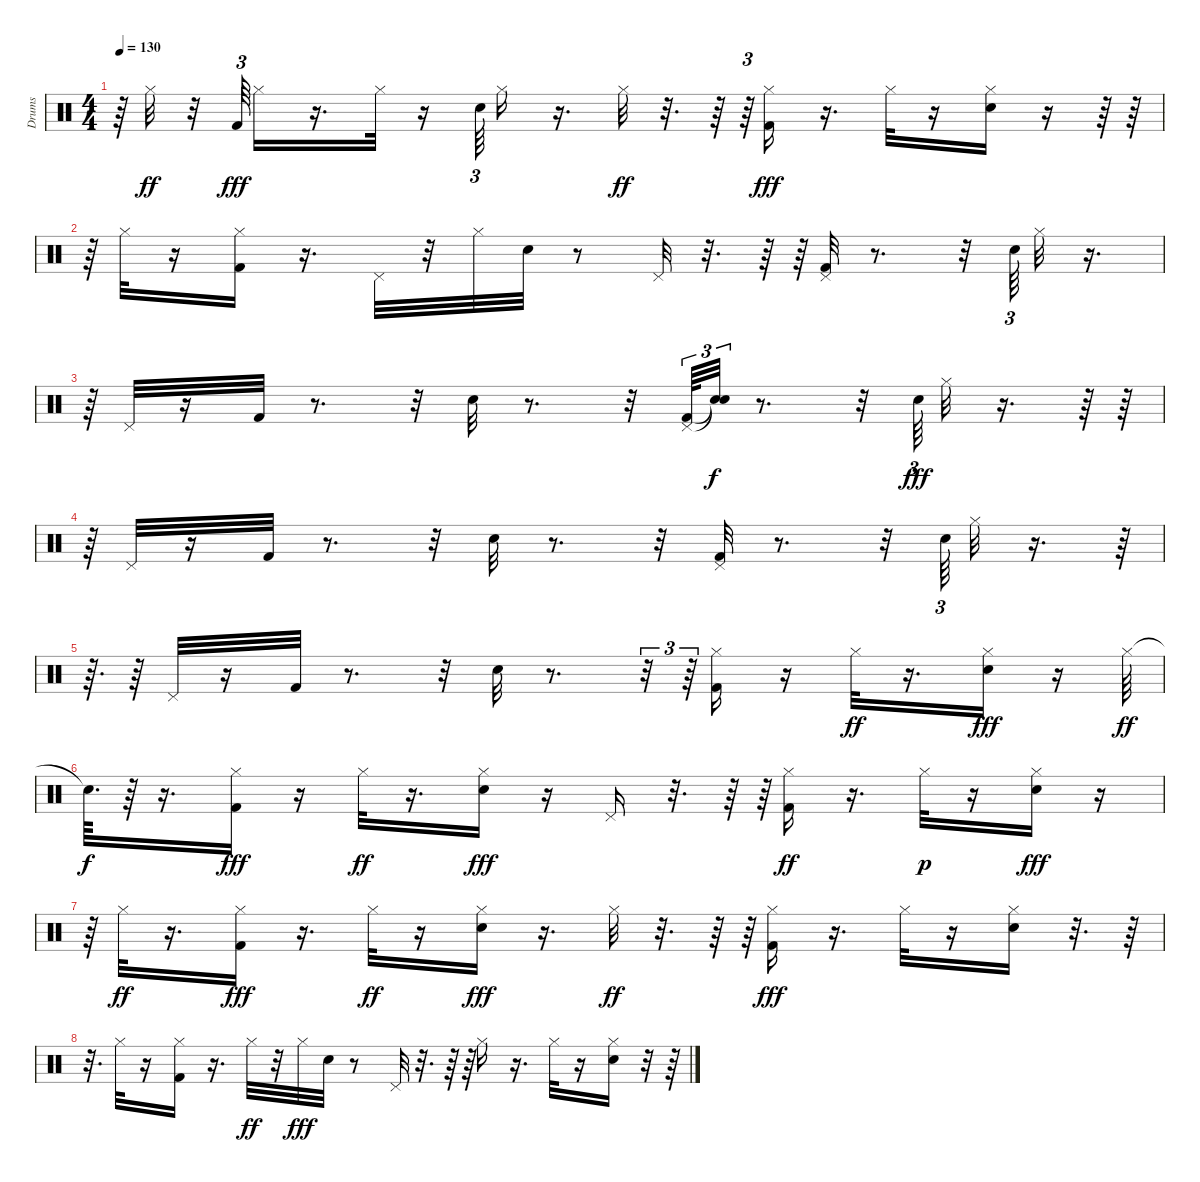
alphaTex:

\track ("Drums" "Drums") {instrument percussion}
\staff {score}
\articulation defaults
\ts (4 4)
\tempo 130
\clef neutral
\ks c
r.64{dy fff} "Hi-Hat (closed)".32{dy ff} r.32 "Kick (hit) 2".64{tu (3 2) dy fff} "Hi-Hat (closed)".16 r.16{d} "Hi-Hat (closed)".32 r.16 "Electric Snare (hit)".64{tu (3 2)} "Hi-Hat (closed)".16 r.16{d} "Hi-Hat (closed)".32{dy ff} r.32{d} r.64 r.64{tu (3 2)} ("Kick (hit) 2" "Hi-Hat (closed)").16{dy fff} r.16{d} "Hi-Hat (closed)".32 r.16 ("Electric Snare (hit)" "Hi-Hat (closed)").16 r.16 r.64 r.64 |
r.64 "Hi-Hat (closed)".32 r.16 ("Kick (hit) 2" "Hi-Hat (closed)").16 r.16{d} "Pedal Hi-Hat (hit)".32 r.32 "Hi-Hat (closed)".32 "Electric Snare (hit)".32 r.8 "Pedal Hi-Hat (hit)".32 r.32{d} r.64 r.64{tu (3 2)} ("Kick (hit) 2" "Pedal Hi-Hat (hit)").32 r.8{d} r.32 "Electric Snare (hit)".64{tu (3 2)} "Hi-Hat (closed)".32 r.16{d} |
r.64 "Pedal Hi-Hat (hit)".32 r.16 "Kick (hit) 2".32 r.8{d} r.32 "Electric Snare (hit)".32 r.8{d} r.32 ("Kick (hit) 2" "Pedal Hi-Hat (hit)").64{tu (3 2)} ("Snare (hit)"{t} "Snare (hit)"{t}).32{tu (3 2) dy f} r.8{d} r.32 "Electric Snare (hit)".64{tu (3 2) dy fff} "Hi-Hat (closed)".32 r.16{d} r.64 r.64 |
r.64 "Pedal Hi-Hat (hit)".32 r.16 "Kick (hit) 2".32 r.8{d} r.32 "Electric Snare (hit)".32 r.8{d} r.32 ("Kick (hit) 2" "Pedal Hi-Hat (hit)").32 r.8{d} r.32 "Electric Snare (hit)".64{tu (3 2)} "Hi-Hat (closed)".32 r.16{d} r.64 |
r.64{d} r.64 "Pedal Hi-Hat (hit)".32 r.16 "Kick (hit) 2".32 r.8{d} r.32 "Electric Snare (hit)".32 r.8{d} r.32{tu (3 2)} r.64{tu (3 2)} ("Kick (hit) 2" "Hi-Hat (closed)").16 r.16 "Hi-Hat (closed)".32{dy ff} r.16{d} ("Hi-Hat (closed)" "Electric Snare (hit)").16{dy fff} r.16 "Hi-Hat (closed)".64{dy ff} |
"Snare (hit)"{t}.64{d dy f} r.64 r.16{d} ("Hi-Hat (closed)" "Kick (hit) 2").16{dy fff} r.16 "Hi-Hat (closed)".32{dy ff} r.16{d} ("Hi-Hat (closed)" "Electric Snare (hit)").16{dy fff} r.16 "Pedal Hi-Hat (hit)".16 r.32{d} r.64 r.64{tu (3 2)} ("Kick (hit) 2" "Hi-Hat (closed)").16{dy ff} r.16{d} "Hi-Hat (closed)".32{dy p} r.16 ("Electric Snare (hit)" "Hi-Hat (closed)").16{dy fff} r.16 |
r.64 "Hi-Hat (closed)".32{dy ff} r.16{d} ("Kick (hit) 2" "Hi-Hat (closed)").16{dy fff} r.16{d} "Hi-Hat (closed)".32{dy ff} r.16 ("Electric Snare (hit)" "Hi-Hat (closed)").16{dy fff} r.16{d} "Hi-Hat (closed)".32{dy ff} r.32{d} r.64 r.64{tu (3 2)} ("Kick (hit) 2" "Hi-Hat (closed)").16{dy fff} r.16{d} "Hi-Hat (closed)".32 r.16 ("Hi-Hat (closed)" "Electric Snare (hit)").16 r.32{d} r.64 |
r.32{d} "Hi-Hat (closed)".32 r.16 ("Hi-Hat (closed)" "Kick (hit) 2").16 r.16{d} "Hi-Hat (closed)".32{dy ff} r.32 "Hi-Hat (closed)".32{dy fff} "Electric Snare (hit)".32 r.8 "Pedal Hi-Hat (hit)".32 r.32{d} r.64 r.64{tu (3 2)} "Hi-Hat (closed)".16 r.16{d} "Hi-Hat (closed)".32 r.16 ("Hi-Hat (closed)" "Electric Snare (hit)").16 r.32 r.64
